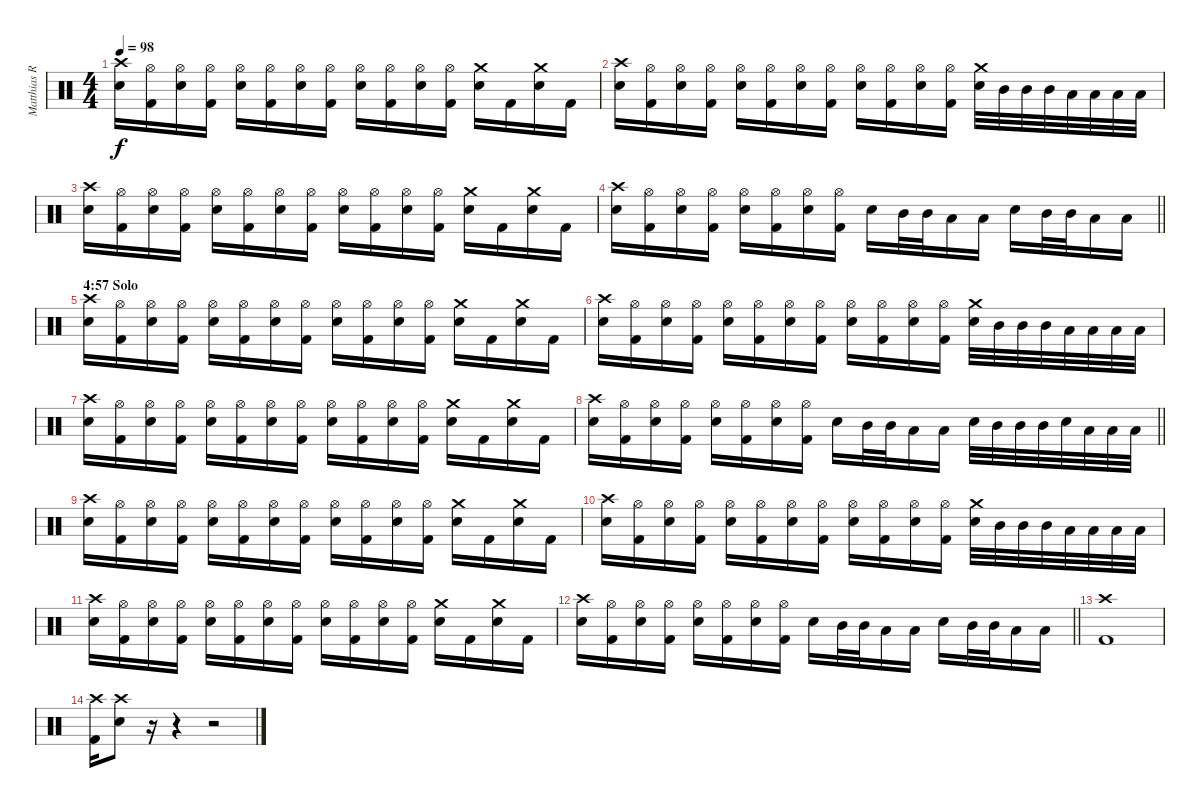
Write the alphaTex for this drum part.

\track ("Matthias R." "Matthias R") {instrument percussion}
\staff {score}
\articulation defaults
\ts (4 4)
\tempo 98
\clef neutral
\ks c
("Snare (hit) 2" "Crash high (hit)").16{dy f} ("Kick (hit) 2" "Hi-Hat (open)").16 ("Snare (hit) 2" "Hi-Hat (open)").16 ("Kick (hit) 2" "Hi-Hat (open)").16 ("Snare (hit) 2" "Hi-Hat (open)").16 ("Kick (hit) 2" "Hi-Hat (open)").16 ("Snare (hit) 2" "Hi-Hat (open)").16 ("Kick (hit) 2" "Hi-Hat (open)").16 ("Snare (hit) 2" "Hi-Hat (open)").16 ("Kick (hit) 2" "Hi-Hat (open)").16 ("Snare (hit) 2" "Hi-Hat (open)").16 ("Kick (hit) 2" "Hi-Hat (open)").16 ("Snare (hit) 2" "Crash medium (hit)").16 "Kick (hit) 2".16 ("Snare (hit) 2" "Crash medium (hit)").16 "Kick (hit) 2".16 |
("Snare (hit) 2" "Crash high (hit)").16 ("Kick (hit) 2" "Hi-Hat (open)").16 ("Snare (hit) 2" "Hi-Hat (open)").16 ("Kick (hit) 2" "Hi-Hat (open)").16 ("Snare (hit) 2" "Hi-Hat (open)").16 ("Kick (hit) 2" "Hi-Hat (open)").16 ("Snare (hit) 2" "Hi-Hat (open)").16 ("Kick (hit) 2" "Hi-Hat (open)").16 ("Snare (hit) 2" "Hi-Hat (open)").16 ("Kick (hit) 2" "Hi-Hat (open)").16 ("Snare (hit) 2" "Hi-Hat (open)").16 ("Kick (hit) 2" "Hi-Hat (open)").16 ("Snare (hit) 2" "Crash medium (hit)").32 "Mid Tom (hit)".32 "Mid Tom (hit)".32 "Mid Tom (hit)".32 "Low Tom (hit)".32 "Low Tom (hit)".32 "Low Tom (hit)".32 "Low Tom (hit)".32 |
("Snare (hit) 2" "Crash high (hit)").16 ("Kick (hit) 2" "Hi-Hat (open)").16 ("Snare (hit) 2" "Hi-Hat (open)").16 ("Kick (hit) 2" "Hi-Hat (open)").16 ("Snare (hit) 2" "Hi-Hat (open)").16 ("Kick (hit) 2" "Hi-Hat (open)").16 ("Snare (hit) 2" "Hi-Hat (open)").16 ("Kick (hit) 2" "Hi-Hat (open)").16 ("Snare (hit) 2" "Hi-Hat (open)").16 ("Kick (hit) 2" "Hi-Hat (open)").16 ("Snare (hit) 2" "Hi-Hat (open)").16 ("Kick (hit) 2" "Hi-Hat (open)").16 ("Snare (hit) 2" "Crash medium (hit)").16 "Kick (hit) 2".16 ("Snare (hit) 2" "Crash medium (hit)").16 "Kick (hit) 2".16 |
\barLineRight lightlight
("Snare (hit) 2" "Crash high (hit)").16 ("Kick (hit) 2" "Hi-Hat (open)").16 ("Snare (hit) 2" "Hi-Hat (open)").16 ("Kick (hit) 2" "Hi-Hat (open)").16 ("Snare (hit) 2" "Hi-Hat (open)").16 ("Kick (hit) 2" "Hi-Hat (open)").16 ("Snare (hit) 2" "Hi-Hat (open)").16 ("Kick (hit) 2" "Hi-Hat (open)").16 "Snare (hit) 2".16 "Mid Tom (hit)".32 "Mid Tom (hit)".32 "Low Tom (hit)".16 "Low Tom (hit)".16 "Snare (hit) 2".16 "Mid Tom (hit)".32 "Mid Tom (hit)".32 "Low Tom (hit)".16 "Low Tom (hit)".16 |
\section ("" "4:57 Solo")
("Snare (hit) 2" "Crash high (hit)").16 ("Kick (hit) 2" "Hi-Hat (open)").16 ("Snare (hit) 2" "Hi-Hat (open)").16 ("Kick (hit) 2" "Hi-Hat (open)").16 ("Snare (hit) 2" "Hi-Hat (open)").16 ("Kick (hit) 2" "Hi-Hat (open)").16 ("Snare (hit) 2" "Hi-Hat (open)").16 ("Kick (hit) 2" "Hi-Hat (open)").16 ("Snare (hit) 2" "Hi-Hat (open)").16 ("Kick (hit) 2" "Hi-Hat (open)").16 ("Snare (hit) 2" "Hi-Hat (open)").16 ("Kick (hit) 2" "Hi-Hat (open)").16 ("Snare (hit) 2" "Crash medium (hit)").16 "Kick (hit) 2".16 ("Snare (hit) 2" "Crash medium (hit)").16 "Kick (hit) 2".16 |
("Snare (hit) 2" "Crash high (hit)").16 ("Kick (hit) 2" "Hi-Hat (open)").16 ("Snare (hit) 2" "Hi-Hat (open)").16 ("Kick (hit) 2" "Hi-Hat (open)").16 ("Snare (hit) 2" "Hi-Hat (open)").16 ("Kick (hit) 2" "Hi-Hat (open)").16 ("Snare (hit) 2" "Hi-Hat (open)").16 ("Kick (hit) 2" "Hi-Hat (open)").16 ("Snare (hit) 2" "Hi-Hat (open)").16 ("Kick (hit) 2" "Hi-Hat (open)").16 ("Snare (hit) 2" "Hi-Hat (open)").16 ("Kick (hit) 2" "Hi-Hat (open)").16 ("Snare (hit) 2" "Crash medium (hit)").32 "Mid Tom (hit)".32 "Mid Tom (hit)".32 "Mid Tom (hit)".32 "Low Tom (hit)".32 "Low Tom (hit)".32 "Low Tom (hit)".32 "Low Tom (hit)".32 |
("Snare (hit) 2" "Crash high (hit)").16 ("Kick (hit) 2" "Hi-Hat (open)").16 ("Snare (hit) 2" "Hi-Hat (open)").16 ("Kick (hit) 2" "Hi-Hat (open)").16 ("Snare (hit) 2" "Hi-Hat (open)").16 ("Kick (hit) 2" "Hi-Hat (open)").16 ("Snare (hit) 2" "Hi-Hat (open)").16 ("Kick (hit) 2" "Hi-Hat (open)").16 ("Snare (hit) 2" "Hi-Hat (open)").16 ("Kick (hit) 2" "Hi-Hat (open)").16 ("Snare (hit) 2" "Hi-Hat (open)").16 ("Kick (hit) 2" "Hi-Hat (open)").16 ("Snare (hit) 2" "Crash medium (hit)").16 "Kick (hit) 2".16 ("Snare (hit) 2" "Crash medium (hit)").16 "Kick (hit) 2".16 |
\barLineRight lightlight
("Snare (hit) 2" "Crash high (hit)").16 ("Kick (hit) 2" "Hi-Hat (open)").16 ("Snare (hit) 2" "Hi-Hat (open)").16 ("Kick (hit) 2" "Hi-Hat (open)").16 ("Snare (hit) 2" "Hi-Hat (open)").16 ("Kick (hit) 2" "Hi-Hat (open)").16 ("Snare (hit) 2" "Hi-Hat (open)").16 ("Kick (hit) 2" "Hi-Hat (open)").16 "Snare (hit) 2".16 "Mid Tom (hit)".32 "Mid Tom (hit)".32 "Low Tom (hit)".16 "Low Tom (hit)".16 "Snare (hit) 2".32 "Mid Tom (hit)".32 "Mid Tom (hit)".32 "Mid Tom (hit)".32 "Snare (hit) 2".32 "Low Tom (hit)".32 "Low Tom (hit)".32 "Low Tom (hit)".32 |
("Snare (hit) 2" "Crash high (hit)").16 ("Kick (hit) 2" "Hi-Hat (open)").16 ("Snare (hit) 2" "Hi-Hat (open)").16 ("Kick (hit) 2" "Hi-Hat (open)").16 ("Snare (hit) 2" "Hi-Hat (open)").16 ("Kick (hit) 2" "Hi-Hat (open)").16 ("Snare (hit) 2" "Hi-Hat (open)").16 ("Kick (hit) 2" "Hi-Hat (open)").16 ("Snare (hit) 2" "Hi-Hat (open)").16 ("Kick (hit) 2" "Hi-Hat (open)").16 ("Snare (hit) 2" "Hi-Hat (open)").16 ("Kick (hit) 2" "Hi-Hat (open)").16 ("Snare (hit) 2" "Crash medium (hit)").16 "Kick (hit) 2".16 ("Snare (hit) 2" "Crash medium (hit)").16 "Kick (hit) 2".16 |
("Snare (hit) 2" "Crash high (hit)").16 ("Kick (hit) 2" "Hi-Hat (open)").16 ("Snare (hit) 2" "Hi-Hat (open)").16 ("Kick (hit) 2" "Hi-Hat (open)").16 ("Snare (hit) 2" "Hi-Hat (open)").16 ("Kick (hit) 2" "Hi-Hat (open)").16 ("Snare (hit) 2" "Hi-Hat (open)").16 ("Kick (hit) 2" "Hi-Hat (open)").16 ("Snare (hit) 2" "Hi-Hat (open)").16 ("Kick (hit) 2" "Hi-Hat (open)").16 ("Snare (hit) 2" "Hi-Hat (open)").16 ("Kick (hit) 2" "Hi-Hat (open)").16 ("Snare (hit) 2" "Crash medium (hit)").32 "Mid Tom (hit)".32 "Mid Tom (hit)".32 "Mid Tom (hit)".32 "Low Tom (hit)".32 "Low Tom (hit)".32 "Low Tom (hit)".32 "Low Tom (hit)".32 |
("Snare (hit) 2" "Crash high (hit)").16 ("Kick (hit) 2" "Hi-Hat (open)").16 ("Snare (hit) 2" "Hi-Hat (open)").16 ("Kick (hit) 2" "Hi-Hat (open)").16 ("Snare (hit) 2" "Hi-Hat (open)").16 ("Kick (hit) 2" "Hi-Hat (open)").16 ("Snare (hit) 2" "Hi-Hat (open)").16 ("Kick (hit) 2" "Hi-Hat (open)").16 ("Snare (hit) 2" "Hi-Hat (open)").16 ("Kick (hit) 2" "Hi-Hat (open)").16 ("Snare (hit) 2" "Hi-Hat (open)").16 ("Kick (hit) 2" "Hi-Hat (open)").16 ("Snare (hit) 2" "Crash medium (hit)").16 "Kick (hit) 2".16 ("Snare (hit) 2" "Crash medium (hit)").16 "Kick (hit) 2".16 |
\barLineRight lightlight
("Snare (hit) 2" "Crash high (hit)").16 ("Kick (hit) 2" "Hi-Hat (open)").16 ("Snare (hit) 2" "Hi-Hat (open)").16 ("Kick (hit) 2" "Hi-Hat (open)").16 ("Snare (hit) 2" "Hi-Hat (open)").16 ("Kick (hit) 2" "Hi-Hat (open)").16 ("Snare (hit) 2" "Hi-Hat (open)").16 ("Kick (hit) 2" "Hi-Hat (open)").16 "Snare (hit) 2".16 "Mid Tom (hit)".32 "Mid Tom (hit)".32 "Low Tom (hit)".16 "Low Tom (hit)".16 "Snare (hit) 2".16 "Mid Tom (hit)".32 "Mid Tom (hit)".32 "Low Tom (hit)".16 "Low Tom (hit)".16 |
("Kick (hit) 2" "Crash high (hit)").1 |
("Kick (hit) 2" "Crash high (hit)").16 ("Snare (hit) 2" "Crash high (hit)").8 r.16 r.4 r.2
